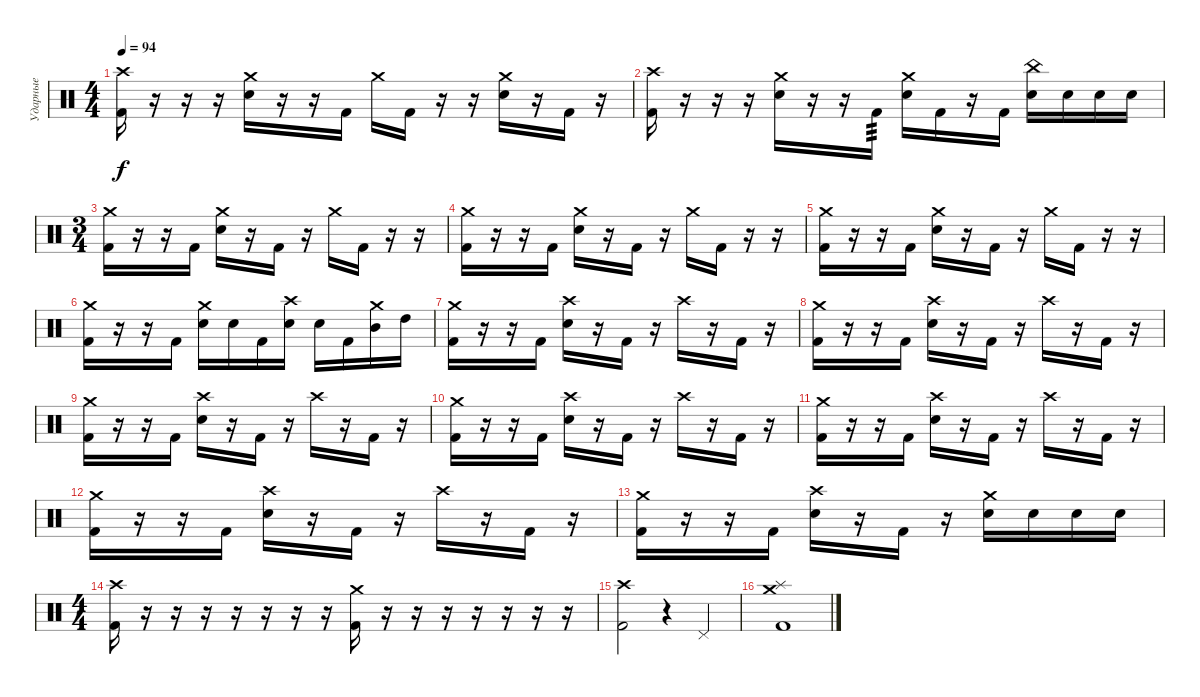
\track ("Ударные" "Ударные") {instrument percussion}
\staff {score}
\articulation defaults
\ts (4 4)
\tempo 94
\clef neutral
\ks c
("Crash high (hit)" "Kick (hit) 2").16{dy f} r.16 r.16 r.16 ("Crash medium (hit)" "Electric Snare (hit)").16 r.16 r.16 "Kick (hit) 2".16 "Crash medium (hit)".16 "Kick (hit) 2".16 r.16 r.16 ("Crash medium (hit)" "Electric Snare (hit)").16 r.16 "Kick (hit) 2".16 r.16 |
("Crash high (hit)" "Kick (hit) 2").16 r.16 r.16 r.16 ("Crash medium (hit)" "Electric Snare (hit)").16 r.16 r.16 "Kick (hit) 2".16{tp 3} ("Crash medium (hit)" "Electric Snare (hit)").16 "Kick (hit) 2".16 r.16 "Kick (hit) 2".16 ("China (hit)" "Electric Snare (hit)").16 "Electric Snare (hit)".16 "Electric Snare (hit)".16 "Electric Snare (hit)".16 |
\ts (3 4)
("Crash medium (hit)" "Kick (hit) 2").16 r.16 r.16 "Kick (hit) 2".16 ("Crash medium (hit)" "Electric Snare (hit)").16 r.16 "Kick (hit) 2".16 r.16 "Crash medium (hit)".16 "Kick (hit) 2".16 r.16 r.16 |
("Crash medium (hit)" "Kick (hit) 2").16 r.16 r.16 "Kick (hit) 2".16 ("Crash medium (hit)" "Electric Snare (hit)").16 r.16 "Kick (hit) 2".16 r.16 "Crash medium (hit)".16 "Kick (hit) 2".16 r.16 r.16 |
("Crash medium (hit)" "Kick (hit) 2").16 r.16 r.16 "Kick (hit) 2".16 ("Crash medium (hit)" "Electric Snare (hit)").16 r.16 "Kick (hit) 2".16 r.16 "Crash medium (hit)".16 "Kick (hit) 2".16 r.16 r.16 |
("Crash medium (hit)" "Kick (hit) 2").16 r.16 r.16 "Kick (hit) 2".16 ("Crash medium (hit)" "Electric Snare (hit)").16 "Electric Snare (hit)".16 "Kick (hit) 2".16 ("Crash high (hit)" "Electric Snare (hit)").16 "Electric Snare (hit)".16 "Kick (hit) 2".16 ("Crash medium (hit)" "Mid Tom (hit)").16 "High Tom (hit)".16 |
("Crash medium (hit)" "Kick (hit) 2").16 r.16 r.16 "Kick (hit) 2".16 ("Crash high (hit)" "Electric Snare (hit)").16 r.16 "Kick (hit) 2".16 r.16 "Crash high (hit)".16 r.16 "Kick (hit) 2".16 r.16 |
("Crash medium (hit)" "Kick (hit) 2").16 r.16 r.16 "Kick (hit) 2".16 ("Crash high (hit)" "Electric Snare (hit)").16 r.16 "Kick (hit) 2".16 r.16 "Crash high (hit)".16 r.16 "Kick (hit) 2".16 r.16 |
("Crash medium (hit)" "Kick (hit) 2").16 r.16 r.16 "Kick (hit) 2".16 ("Crash high (hit)" "Electric Snare (hit)").16 r.16 "Kick (hit) 2".16 r.16 "Crash high (hit)".16 r.16 "Kick (hit) 2".16 r.16 |
("Crash medium (hit)" "Kick (hit) 2").16 r.16 r.16 "Kick (hit) 2".16 ("Crash high (hit)" "Electric Snare (hit)").16 r.16 "Kick (hit) 2".16 r.16 "Crash high (hit)".16 r.16 "Kick (hit) 2".16 r.16 |
("Crash medium (hit)" "Kick (hit) 2").16 r.16 r.16 "Kick (hit) 2".16 ("Crash high (hit)" "Electric Snare (hit)").16 r.16 "Kick (hit) 2".16 r.16 "Crash high (hit)".16 r.16 "Kick (hit) 2".16 r.16 |
("Crash medium (hit)" "Kick (hit) 2").16 r.16 r.16 "Kick (hit) 2".16 ("Crash high (hit)" "Electric Snare (hit)").16 r.16 "Kick (hit) 2".16 r.16 "Crash high (hit)".16 r.16 "Kick (hit) 2".16 r.16 |
("Crash medium (hit)" "Kick (hit) 2").16 r.16 r.16 "Kick (hit) 2".16 ("Crash high (hit)" "Electric Snare (hit)").16 r.16 "Kick (hit) 2".16 r.16 ("Crash medium (hit)" "Electric Snare (hit)").16 "Electric Snare (hit)".16 "Electric Snare (hit)".16 "Electric Snare (hit)".16 |
\ts (4 4)
("Crash high (hit)" "Kick (hit) 2").16 r.16 r.16 r.16 r.16 r.16 r.16 r.16 ("Crash medium (hit)" "Kick (hit) 2").16 r.16 r.16 r.16 r.16 r.16 r.16 r.16 |
("Crash high (hit)" "Kick (hit) 2").2 r.4 "Pedal Hi-Hat (hit)".4 |
("Kick (hit) 2" "Splash (hit)" "Crash medium (hit)").1
